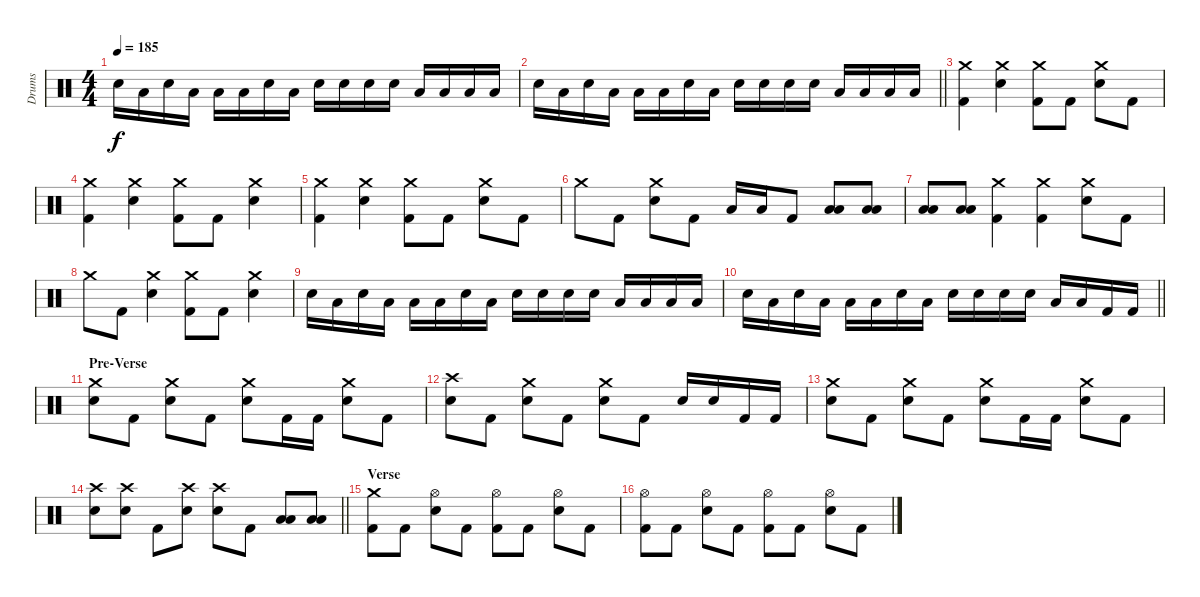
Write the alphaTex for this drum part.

\track ("Drums" "Drums") {instrument percussion}
\staff {score}
\articulation defaults
\ts (4 4)
\tempo 185
\clef neutral
\ks c "Electric Snare (hit)".16{dy f} "Low Tom (hit)".16 "Electric Snare (hit)".16 "Low Tom (hit)".16 "Low Tom (hit)".16 "Low Tom (hit)".16 "Electric Snare (hit)".16 "Low Tom (hit)".16 "Electric Snare (hit)".16 "Electric Snare (hit)".16 "Electric Snare (hit)".16 "Electric Snare (hit)".16 "Low Tom (hit)".16 "Low Tom (hit)".16 "Low Tom (hit)".16 "Low Tom (hit)".16
|
\barLineRight lightlight "Electric Snare (hit)".16 "Low Tom (hit)".16 "Electric Snare (hit)".16 "Low Tom (hit)".16 "Low Tom (hit)".16 "Low Tom (hit)".16 "Electric Snare (hit)".16 "Low Tom (hit)".16 "Electric Snare (hit)".16 "Electric Snare (hit)".16 "Electric Snare (hit)".16 "Electric Snare (hit)".16 "Low Floor Tom (hit)".16 "Low Floor Tom (hit)".16 "Low Floor Tom (hit)".16 "Low Floor Tom (hit)".16
|
("Crash medium (hit)" "Kick (hit) 2").4 ("Crash medium (hit)" "Electric Snare (hit)").4 ("Crash medium (hit)" "Kick (hit) 2").8 "Kick (hit) 2".8 ("Crash medium (hit)" "Electric Snare (hit)").8 "Kick (hit) 2".8 |
("Crash medium (hit)" "Kick (hit) 2").4 ("Crash medium (hit)" "Electric Snare (hit)").4 ("Crash medium (hit)" "Kick (hit) 2").8 "Kick (hit) 2".8 ("Crash medium (hit)" "Electric Snare (hit)").4 |
("Crash medium (hit)" "Kick (hit) 2").4 ("Crash medium (hit)" "Electric Snare (hit)").4 ("Crash medium (hit)" "Kick (hit) 2").8 "Kick (hit) 2".8 ("Crash medium (hit)" "Electric Snare (hit)").8 "Kick (hit) 2".8 |
"Crash medium (hit)".8 "Kick (hit) 2".8 ("Crash medium (hit)" "Electric Snare (hit)").8 "Kick (hit) 2".8 "Low Tom (hit)".16 "Low Tom (hit)".16 "Kick (hit) 2".8 ("Low Tom (hit)" "Low Floor Tom (hit)").8 ("Low Tom (hit)" "Low Floor Tom (hit)").8 |
("Low Tom (hit)" "Low Floor Tom (hit)").8 ("Low Tom (hit)" "Low Floor Tom (hit)").8 ("Crash medium (hit)" "Kick (hit) 2").4 ("Crash medium (hit)" "Kick (hit) 2").4 ("Crash medium (hit)" "Electric Snare (hit)").8 "Kick (hit) 2".8 |
"Crash medium (hit)".8 "Kick (hit) 2".8 ("Crash medium (hit)" "Electric Snare (hit)").4 ("Crash medium (hit)" "Kick (hit) 2").8 "Kick (hit) 2".8 ("Crash medium (hit)" "Electric Snare (hit)").4 |
"Electric Snare (hit)".16 "Low Tom (hit)".16 "Electric Snare (hit)".16 "Low Tom (hit)".16 "Low Tom (hit)".16 "Low Tom (hit)".16 "Electric Snare (hit)".16 "Low Tom (hit)".16 "Electric Snare (hit)".16 "Electric Snare (hit)".16 "Electric Snare (hit)".16 "Electric Snare (hit)".16 "Low Tom (hit)".16 "Low Tom (hit)".16 "Low Tom (hit)".16 "Low Tom (hit)".16 |
\barLineRight lightlight "Electric Snare (hit)".16 "Low Tom (hit)".16 "Electric Snare (hit)".16 "Low Tom (hit)".16 "Low Tom (hit)".16 "Low Tom (hit)".16 "Electric Snare (hit)".16 "Low Tom (hit)".16 "Electric Snare (hit)".16 "Electric Snare (hit)".16 "Electric Snare (hit)".16 "Electric Snare (hit)".16 "Low Floor Tom (hit)".16 "Low Floor Tom (hit)".16 "Kick (hit) 2".16 "Kick (hit) 2".16
|
\section ("" "Pre-Verse")
("Crash medium (hit)" "Electric Snare (hit)").8 "Kick (hit) 2".8 ("Crash medium (hit)" "Electric Snare (hit)").8 "Kick (hit) 2".8 ("Crash medium (hit)" "Electric Snare (hit)").8 "Kick (hit) 2".16 "Kick (hit) 2".16 ("Crash medium (hit)" "Electric Snare (hit)").8 "Kick (hit) 2".8 |
("Crash high (hit)" "Electric Snare (hit)").8 "Kick (hit) 2".8 ("Crash medium (hit)" "Electric Snare (hit)").8 "Kick (hit) 2".8 ("Crash medium (hit)" "Electric Snare (hit)").8 "Kick (hit) 2".8 "Electric Snare (hit)".16 "Electric Snare (hit)".16 "Kick (hit) 2".16 "Kick (hit) 2".16 |
("Crash medium (hit)" "Electric Snare (hit)").8 "Kick (hit) 2".8 ("Crash medium (hit)" "Electric Snare (hit)").8 "Kick (hit) 2".8 ("Crash medium (hit)" "Electric Snare (hit)").8 "Kick (hit) 2".16 "Kick (hit) 2".16 ("Crash medium (hit)" "Electric Snare (hit)").8 "Kick (hit) 2".8 |
\barLineRight lightlight
("Crash high (hit)" "Electric Snare (hit)").8 ("Crash high (hit)" "Electric Snare (hit)").8 "Kick (hit) 2".8 ("Crash high (hit)" "Electric Snare (hit)").8 ("Crash high (hit)" "Electric Snare (hit)").8 "Kick (hit) 2".8 ("Low Tom (hit)" "Low Floor Tom (hit)").8 ("Low Tom (hit)" "Low Floor Tom (hit)").8 |
\section ("" "Verse")
("Crash medium (hit)" "Kick (hit) 2").8 "Kick (hit) 2".8 ("Hi-Hat (open)" "Electric Snare (hit)").8 "Kick (hit) 2".8 ("Hi-Hat (open)" "Kick (hit) 2").8 "Kick (hit) 2".8 ("Hi-Hat (open)" "Electric Snare (hit)").8 "Kick (hit) 2".8 |
("Hi-Hat (open)" "Kick (hit) 2").8 "Kick (hit) 2".8 ("Hi-Hat (open)" "Electric Snare (hit)").8 "Kick (hit) 2".8 ("Hi-Hat (open)" "Kick (hit) 2").8 "Kick (hit) 2".8 ("Hi-Hat (open)" "Electric Snare (hit)").8 "Kick (hit) 2".8
